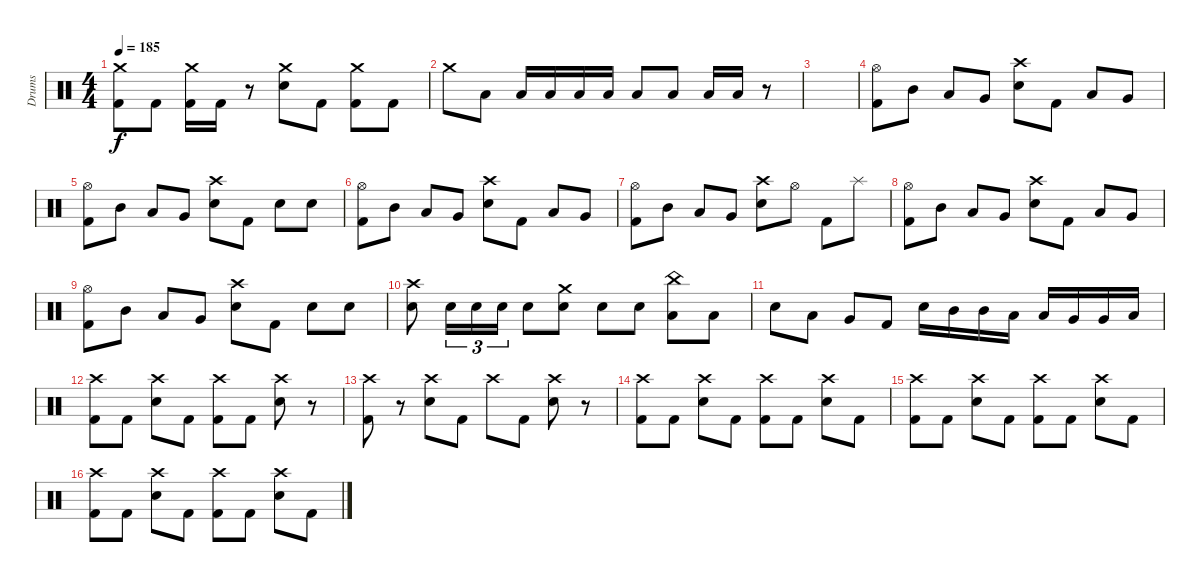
\track ("Drums" "Drums") {instrument percussion}
\staff {score}
\articulation defaults
\ts (4 4)
\tempo 185
\clef neutral
\ks c
("Crash medium (hit)" "Kick (hit) 2").8{dy f} "Kick (hit) 2".8 ("Crash medium (hit)" "Kick (hit) 2").16 "Kick (hit) 2".16 r.8 ("Crash medium (hit)" "Electric Snare (hit)").8 "Kick (hit) 2".8 ("Crash medium (hit)" "Kick (hit) 2").8 "Kick (hit) 2".8 |
"Crash medium (hit)".8 "Low Tom (hit)".8 "Low Tom (hit)".16 "Low Tom (hit)".16 "Low Tom (hit)".16 "Low Tom (hit)".16 "Low Tom (hit)".8 "Low Tom (hit)".8 "Low Tom (hit)".16 "Low Tom (hit)".16 r.8 |
|
("Hi-Hat (open)" "Kick (hit) 2").8 "Mid Tom (hit)".8 "Low Tom (hit)".8 "Very Low Tom (hit)".8 ("Crash high (hit)" "Electric Snare (hit)").8 "Kick (hit) 2".8 "Low Tom (hit)".8 "Very Low Tom (hit)".8 |
("Hi-Hat (open)" "Kick (hit) 2").8 "Mid Tom (hit)".8 "Low Tom (hit)".8 "Very Low Tom (hit)".8 ("Crash high (hit)" "Electric Snare (hit)").8 "Kick (hit) 2".8 "Electric Snare (hit)".8 "Electric Snare (hit)".8 |
("Hi-Hat (open)" "Kick (hit) 2").8 "Mid Tom (hit)".8 "Low Tom (hit)".8 "Very Low Tom (hit)".8 ("Crash high (hit)" "Electric Snare (hit)").8 "Kick (hit) 2".8 "Low Tom (hit)".8 "Very Low Tom (hit)".8 |
("Hi-Hat (open)" "Kick (hit) 2").8 "Mid Tom (hit)".8 "Low Tom (hit)".8 "Very Low Tom (hit)".8 ("Crash high (hit)" "Electric Snare (hit)").8 "Hi-Hat (open)".8 "Kick (hit) 2".8 "Splash (hit)".8 |
("Hi-Hat (open)" "Kick (hit) 2").8 "Mid Tom (hit)".8 "Low Tom (hit)".8 "Very Low Tom (hit)".8 ("Crash high (hit)" "Electric Snare (hit)").8 "Kick (hit) 2".8 "Low Tom (hit)".8 "Very Low Tom (hit)".8 |
("Hi-Hat (open)" "Kick (hit) 2").8 "Mid Tom (hit)".8 "Low Tom (hit)".8 "Very Low Tom (hit)".8 ("Crash high (hit)" "Electric Snare (hit)").8 "Kick (hit) 2".8 "Electric Snare (hit)".8 "Electric Snare (hit)".8 |
("Crash high (hit)" "Electric Snare (hit)").8 "Electric Snare (hit)".16{tu (3 2)} "Electric Snare (hit)".16{tu (3 2)} "Electric Snare (hit)".16{tu (3 2)} "Electric Snare (hit)".8 ("Crash medium (hit)" "Electric Snare (hit)").8 "Electric Snare (hit)".8 "Electric Snare (hit)".8 ("China (hit)" "Low Tom (hit)").8 "Low Tom (hit)".8 |
"Electric Snare (hit)".8 "Low Tom (hit)".8 "Very Low Tom (hit)".8 "Kick (hit) 2".8 "Electric Snare (hit)".16 "Mid Tom (hit)".16 "Mid Tom (hit)".16 "Low Tom (hit)".16 "Low Tom (hit)".16 "Very Low Tom (hit)".16 "Very Low Tom (hit)".16 "Low Floor Tom (hit)".16 |
("Crash high (hit)" "Kick (hit) 2").8 "Kick (hit) 2".8 ("Crash high (hit)" "Electric Snare (hit)").8 "Kick (hit) 2".8 ("Crash high (hit)" "Kick (hit) 2").8 "Kick (hit) 2".8 ("Crash high (hit)" "Electric Snare (hit)").8 r.8 |
("Crash high (hit)" "Kick (hit) 2").8 r.8 ("Crash high (hit)" "Electric Snare (hit)").8 "Kick (hit) 2".8 "Crash high (hit)".8 "Kick (hit) 2".8 ("Crash high (hit)" "Electric Snare (hit)").8 r.8 |
("Crash high (hit)" "Kick (hit) 2").8 "Kick (hit) 2".8 ("Crash high (hit)" "Electric Snare (hit)").8 "Kick (hit) 2".8 ("Crash high (hit)" "Kick (hit) 2").8 "Kick (hit) 2".8 ("Crash high (hit)" "Electric Snare (hit)").8 "Kick (hit) 2".8 |
("Crash high (hit)" "Kick (hit) 2").8 "Kick (hit) 2".8 ("Crash high (hit)" "Electric Snare (hit)").8 "Kick (hit) 2".8 ("Crash high (hit)" "Kick (hit) 2").8 "Kick (hit) 2".8 ("Crash high (hit)" "Electric Snare (hit)").8 "Kick (hit) 2".8 |
("Crash high (hit)" "Kick (hit) 2").8 "Kick (hit) 2".8 ("Crash high (hit)" "Electric Snare (hit)").8 "Kick (hit) 2".8 ("Crash high (hit)" "Kick (hit) 2").8 "Kick (hit) 2".8 ("Crash high (hit)" "Electric Snare (hit)").8 "Kick (hit) 2".8
